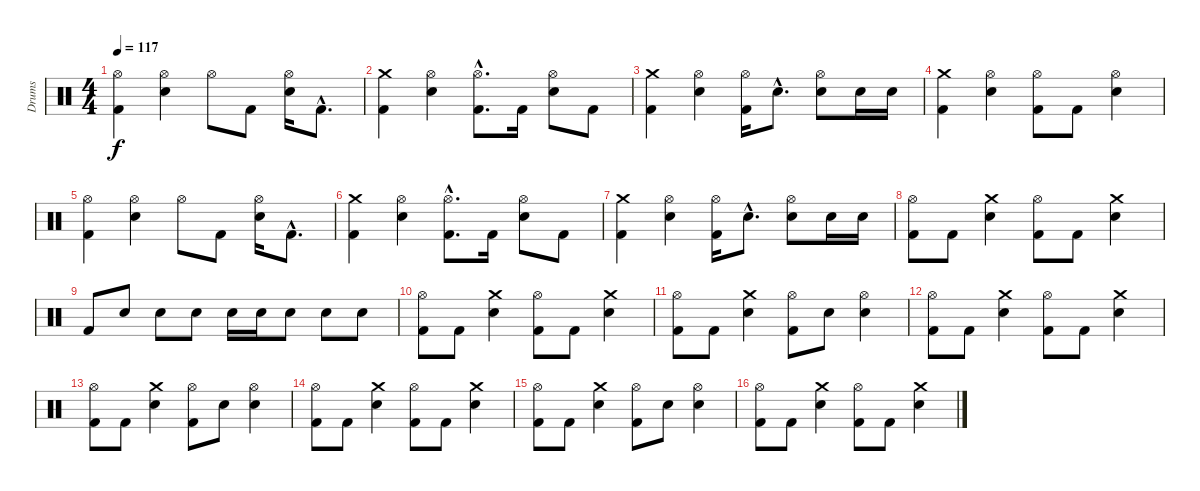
\track ("Drums" "Drums") {instrument percussion}
\staff {score}
\articulation defaults
\ts (4 4)
\tempo 117
\clef neutral
\ks c
("Hi-Hat (open)" "Kick (hit) 2").4{dy f} ("Hi-Hat (open)" "Snare (hit) 2").4 "Hi-Hat (open)".8 "Kick (hit) 2".8 ("Hi-Hat (open)" "Snare (hit) 2").16 "Kick (hit) 2"{hac}.8{d} |
("Crash medium (hit)" "Kick (hit) 2").4 ("Hi-Hat (open)" "Snare (hit) 2").4 ("Hi-Hat (open)"{hac} "Kick (hit) 2"{hac}).8{d} "Kick (hit) 2".16 ("Hi-Hat (open)" "Snare (hit) 2").8 "Kick (hit) 2".8 |
("Crash medium (hit)" "Kick (hit) 2").4 ("Hi-Hat (open)" "Snare (hit) 2").4 ("Hi-Hat (open)" "Kick (hit) 2").16 "Snare (hit) 2"{hac}.8{d} ("Hi-Hat (open)" "Snare (hit) 2").8 "Snare (hit) 2".16 "Snare (hit) 2".16 |
("Crash medium (hit)" "Kick (hit) 2").4 ("Hi-Hat (open)" "Snare (hit) 2").4 ("Hi-Hat (open)" "Kick (hit) 2").8 "Kick (hit) 2".8 ("Hi-Hat (open)" "Snare (hit) 2").4 |
("Hi-Hat (open)" "Kick (hit) 2").4 ("Hi-Hat (open)" "Snare (hit) 2").4 "Hi-Hat (open)".8 "Kick (hit) 2".8 ("Hi-Hat (open)" "Snare (hit) 2").16 "Kick (hit) 2"{hac}.8{d} |
("Crash medium (hit)" "Kick (hit) 2").4 ("Hi-Hat (open)" "Snare (hit) 2").4 ("Hi-Hat (open)"{hac} "Kick (hit) 2"{hac}).8{d} "Kick (hit) 2".16 ("Hi-Hat (open)" "Snare (hit) 2").8 "Kick (hit) 2".8 |
("Crash medium (hit)" "Kick (hit) 2").4 ("Hi-Hat (open)" "Snare (hit) 2").4 ("Hi-Hat (open)" "Kick (hit) 2").16 "Snare (hit) 2"{hac}.8{d} ("Hi-Hat (open)" "Snare (hit) 2").8 "Snare (hit) 2".16 "Snare (hit) 2".16 |
("Hi-Hat (open)" "Kick (hit) 2").8 "Kick (hit) 2".8 ("Crash medium (hit)" "Snare (hit) 2").4 ("Hi-Hat (open)" "Kick (hit) 2").8 "Kick (hit) 2".8 ("Crash medium (hit)" "Snare (hit) 2").4 |
"Kick (hit) 2".8 "Snare (hit) 2".8 "Snare (hit) 2".8 "Snare (hit) 2".8 "Snare (hit) 2".16 "Snare (hit) 2".16 "Snare (hit) 2".8 "Snare (hit) 2".8 "Snare (hit) 2".8 |
("Hi-Hat (open)" "Kick (hit) 2").8 "Kick (hit) 2".8 ("Crash medium (hit)" "Snare (hit) 2").4 ("Hi-Hat (open)" "Kick (hit) 2").8 "Kick (hit) 2".8 ("Crash medium (hit)" "Snare (hit) 2").4 |
("Hi-Hat (open)" "Kick (hit) 2").8 "Kick (hit) 2".8 ("Crash medium (hit)" "Snare (hit) 2").4 ("Hi-Hat (open)" "Kick (hit) 2").8 "Snare (hit) 2".8 ("Hi-Hat (open)" "Snare (hit) 2").4 |
("Hi-Hat (open)" "Kick (hit) 2").8 "Kick (hit) 2".8 ("Crash medium (hit)" "Snare (hit) 2").4 ("Hi-Hat (open)" "Kick (hit) 2").8 "Kick (hit) 2".8 ("Crash medium (hit)" "Snare (hit) 2").4 |
("Hi-Hat (open)" "Kick (hit) 2").8 "Kick (hit) 2".8 ("Crash medium (hit)" "Snare (hit) 2").4 ("Hi-Hat (open)" "Kick (hit) 2").8 "Snare (hit) 2".8 ("Hi-Hat (open)" "Snare (hit) 2").4 |
("Hi-Hat (open)" "Kick (hit) 2").8 "Kick (hit) 2".8 ("Crash medium (hit)" "Snare (hit) 2").4 ("Hi-Hat (open)" "Kick (hit) 2").8 "Kick (hit) 2".8 ("Crash medium (hit)" "Snare (hit) 2").4 |
("Hi-Hat (open)" "Kick (hit) 2").8 "Kick (hit) 2".8 ("Crash medium (hit)" "Snare (hit) 2").4 ("Hi-Hat (open)" "Kick (hit) 2").8 "Snare (hit) 2".8 ("Hi-Hat (open)" "Snare (hit) 2").4 |
("Hi-Hat (open)" "Kick (hit) 2").8 "Kick (hit) 2".8 ("Crash medium (hit)" "Snare (hit) 2").4 ("Hi-Hat (open)" "Kick (hit) 2").8 "Kick (hit) 2".8 ("Crash medium (hit)" "Snare (hit) 2").4
